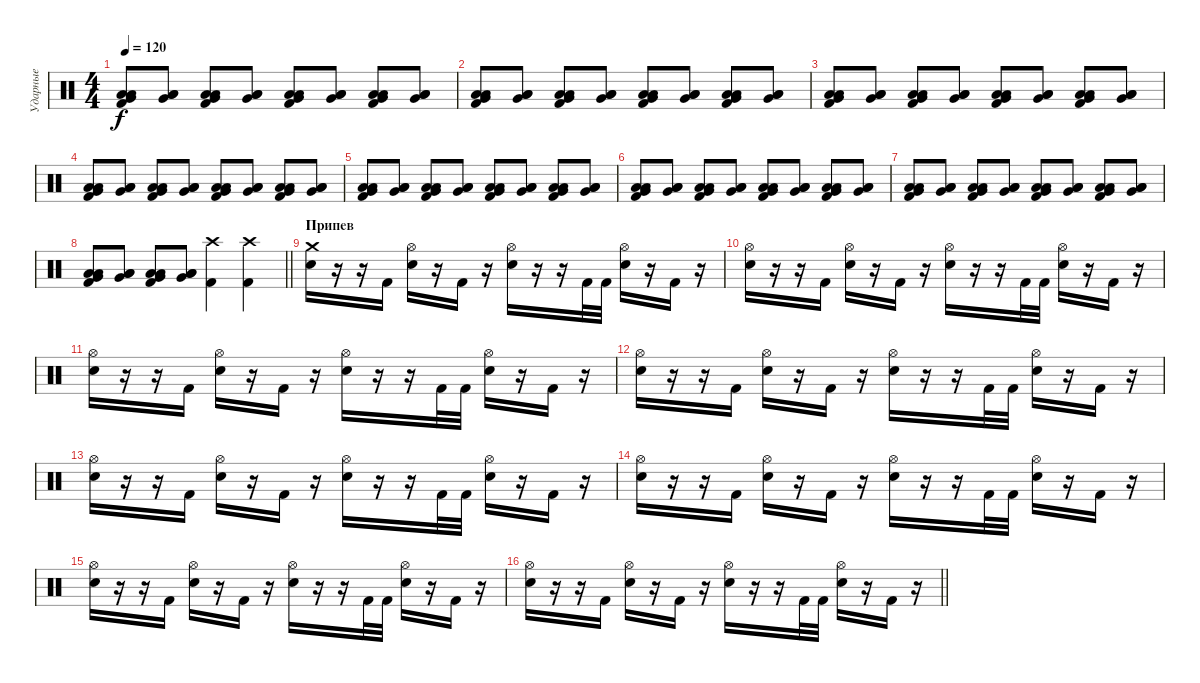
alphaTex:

\track ("Ударные" "Ударные") {instrument percussion}
\staff {score}
\articulation defaults
\ts (4 4)
\section ("" "")
\tempo 120
\clef neutral
\ks c
("Low Tom (hit)" "Low Floor Tom (hit)" "Very Low Tom (hit)" "Kick (hit) 2").8{dy f volume 9} ("Low Tom (hit)" "Low Floor Tom (hit)" "Very Low Tom (hit)").8 ("Low Tom (hit)" "Low Floor Tom (hit)" "Very Low Tom (hit)" "Kick (hit) 2").8 ("Low Tom (hit)" "Low Floor Tom (hit)" "Very Low Tom (hit)").8 ("Low Tom (hit)" "Low Floor Tom (hit)" "Very Low Tom (hit)" "Kick (hit) 2").8 ("Low Tom (hit)" "Low Floor Tom (hit)" "Very Low Tom (hit)").8 ("Low Tom (hit)" "Low Floor Tom (hit)" "Very Low Tom (hit)" "Kick (hit) 2").8 ("Low Tom (hit)" "Low Floor Tom (hit)" "Very Low Tom (hit)").8 |
("Low Tom (hit)" "Low Floor Tom (hit)" "Very Low Tom (hit)" "Kick (hit) 2").8 ("Low Tom (hit)" "Low Floor Tom (hit)" "Very Low Tom (hit)").8 ("Low Tom (hit)" "Low Floor Tom (hit)" "Very Low Tom (hit)" "Kick (hit) 2").8 ("Low Tom (hit)" "Low Floor Tom (hit)" "Very Low Tom (hit)").8 ("Low Tom (hit)" "Low Floor Tom (hit)" "Very Low Tom (hit)" "Kick (hit) 2").8 ("Low Tom (hit)" "Low Floor Tom (hit)" "Very Low Tom (hit)").8 ("Low Tom (hit)" "Low Floor Tom (hit)" "Very Low Tom (hit)" "Kick (hit) 2").8 ("Low Tom (hit)" "Low Floor Tom (hit)" "Very Low Tom (hit)").8 |
("Low Tom (hit)" "Low Floor Tom (hit)" "Very Low Tom (hit)" "Kick (hit) 2").8 ("Low Tom (hit)" "Low Floor Tom (hit)" "Very Low Tom (hit)").8 ("Low Tom (hit)" "Low Floor Tom (hit)" "Very Low Tom (hit)" "Kick (hit) 2").8 ("Low Tom (hit)" "Low Floor Tom (hit)" "Very Low Tom (hit)").8 ("Low Tom (hit)" "Low Floor Tom (hit)" "Very Low Tom (hit)" "Kick (hit) 2").8 ("Low Tom (hit)" "Low Floor Tom (hit)" "Very Low Tom (hit)").8 ("Low Tom (hit)" "Low Floor Tom (hit)" "Very Low Tom (hit)" "Kick (hit) 2").8 ("Low Tom (hit)" "Low Floor Tom (hit)" "Very Low Tom (hit)").8 |
("Low Tom (hit)" "Low Floor Tom (hit)" "Very Low Tom (hit)" "Kick (hit) 2").8 ("Low Tom (hit)" "Low Floor Tom (hit)" "Very Low Tom (hit)").8 ("Low Tom (hit)" "Low Floor Tom (hit)" "Very Low Tom (hit)" "Kick (hit) 2").8 ("Low Tom (hit)" "Low Floor Tom (hit)" "Very Low Tom (hit)").8 ("Low Tom (hit)" "Low Floor Tom (hit)" "Very Low Tom (hit)" "Kick (hit) 2").8 ("Low Tom (hit)" "Low Floor Tom (hit)" "Very Low Tom (hit)").8 ("Low Tom (hit)" "Low Floor Tom (hit)" "Very Low Tom (hit)" "Kick (hit) 2").8 ("Low Tom (hit)" "Low Floor Tom (hit)" "Very Low Tom (hit)").8 |
("Low Tom (hit)" "Low Floor Tom (hit)" "Very Low Tom (hit)" "Kick (hit) 2").8 ("Low Tom (hit)" "Low Floor Tom (hit)" "Very Low Tom (hit)").8 ("Low Tom (hit)" "Low Floor Tom (hit)" "Very Low Tom (hit)" "Kick (hit) 2").8 ("Low Tom (hit)" "Low Floor Tom (hit)" "Very Low Tom (hit)").8 ("Low Tom (hit)" "Low Floor Tom (hit)" "Very Low Tom (hit)" "Kick (hit) 2").8 ("Low Tom (hit)" "Low Floor Tom (hit)" "Very Low Tom (hit)").8 ("Low Tom (hit)" "Low Floor Tom (hit)" "Very Low Tom (hit)" "Kick (hit) 2").8 ("Low Tom (hit)" "Low Floor Tom (hit)" "Very Low Tom (hit)").8 |
("Low Tom (hit)" "Low Floor Tom (hit)" "Very Low Tom (hit)" "Kick (hit) 2").8 ("Low Tom (hit)" "Low Floor Tom (hit)" "Very Low Tom (hit)").8 ("Low Tom (hit)" "Low Floor Tom (hit)" "Very Low Tom (hit)" "Kick (hit) 2").8 ("Low Tom (hit)" "Low Floor Tom (hit)" "Very Low Tom (hit)").8 ("Low Tom (hit)" "Low Floor Tom (hit)" "Very Low Tom (hit)" "Kick (hit) 2").8 ("Low Tom (hit)" "Low Floor Tom (hit)" "Very Low Tom (hit)").8 ("Low Tom (hit)" "Low Floor Tom (hit)" "Very Low Tom (hit)" "Kick (hit) 2").8 ("Low Tom (hit)" "Low Floor Tom (hit)" "Very Low Tom (hit)").8 |
("Low Tom (hit)" "Low Floor Tom (hit)" "Very Low Tom (hit)" "Kick (hit) 2").8 ("Low Tom (hit)" "Low Floor Tom (hit)" "Very Low Tom (hit)").8 ("Low Tom (hit)" "Low Floor Tom (hit)" "Very Low Tom (hit)" "Kick (hit) 2").8 ("Low Tom (hit)" "Low Floor Tom (hit)" "Very Low Tom (hit)").8 ("Low Tom (hit)" "Low Floor Tom (hit)" "Very Low Tom (hit)" "Kick (hit) 2").8 ("Low Tom (hit)" "Low Floor Tom (hit)" "Very Low Tom (hit)").8 ("Low Tom (hit)" "Low Floor Tom (hit)" "Very Low Tom (hit)" "Kick (hit) 2").8 ("Low Tom (hit)" "Low Floor Tom (hit)" "Very Low Tom (hit)").8 |
\barLineRight lightlight
("Low Tom (hit)" "Low Floor Tom (hit)" "Very Low Tom (hit)" "Kick (hit) 2").8 ("Low Tom (hit)" "Low Floor Tom (hit)" "Very Low Tom (hit)").8 ("Low Tom (hit)" "Low Floor Tom (hit)" "Very Low Tom (hit)" "Kick (hit) 2").8 ("Low Tom (hit)" "Low Floor Tom (hit)" "Very Low Tom (hit)").8 ("Crash high (hit)" "Kick (hit) 2").4{volume 13} ("Crash high (hit)" "Kick (hit) 2").4 |
\section ("" "Припев")
("Crash medium (hit)" "Electric Snare (hit)").16 r.16 r.16 "Kick (hit) 2".16 ("Hi-Hat (open)" "Electric Snare (hit)").16 r.16 "Kick (hit) 2".16 r.16 ("Hi-Hat (open)" "Electric Snare (hit)").16 r.16 r.16 "Kick (hit) 2".32 "Kick (hit) 2".32 ("Hi-Hat (open)" "Electric Snare (hit)").16 r.16 "Kick (hit) 2".16 r.16 |
("Hi-Hat (open)" "Electric Snare (hit)").16 r.16 r.16 "Kick (hit) 2".16 ("Hi-Hat (open)" "Electric Snare (hit)").16 r.16 "Kick (hit) 2".16 r.16 ("Hi-Hat (open)" "Electric Snare (hit)").16 r.16 r.16 "Kick (hit) 2".32 "Kick (hit) 2".32 ("Hi-Hat (open)" "Electric Snare (hit)").16 r.16 "Kick (hit) 2".16 r.16 |
("Hi-Hat (open)" "Electric Snare (hit)").16 r.16 r.16 "Kick (hit) 2".16 ("Hi-Hat (open)" "Electric Snare (hit)").16 r.16 "Kick (hit) 2".16 r.16 ("Hi-Hat (open)" "Electric Snare (hit)").16 r.16 r.16 "Kick (hit) 2".32 "Kick (hit) 2".32 ("Hi-Hat (open)" "Electric Snare (hit)").16 r.16 "Kick (hit) 2".16 r.16 |
("Hi-Hat (open)" "Electric Snare (hit)").16 r.16 r.16 "Kick (hit) 2".16 ("Hi-Hat (open)" "Electric Snare (hit)").16 r.16 "Kick (hit) 2".16 r.16 ("Hi-Hat (open)" "Electric Snare (hit)").16 r.16 r.16 "Kick (hit) 2".32 "Kick (hit) 2".32 ("Hi-Hat (open)" "Electric Snare (hit)").16 r.16 "Kick (hit) 2".16 r.16 |
("Hi-Hat (open)" "Electric Snare (hit)").16 r.16 r.16 "Kick (hit) 2".16 ("Hi-Hat (open)" "Electric Snare (hit)").16 r.16 "Kick (hit) 2".16 r.16 ("Hi-Hat (open)" "Electric Snare (hit)").16 r.16 r.16 "Kick (hit) 2".32 "Kick (hit) 2".32 ("Hi-Hat (open)" "Electric Snare (hit)").16 r.16 "Kick (hit) 2".16 r.16 |
("Hi-Hat (open)" "Electric Snare (hit)").16 r.16 r.16 "Kick (hit) 2".16 ("Hi-Hat (open)" "Electric Snare (hit)").16 r.16 "Kick (hit) 2".16 r.16 ("Hi-Hat (open)" "Electric Snare (hit)").16 r.16 r.16 "Kick (hit) 2".32 "Kick (hit) 2".32 ("Hi-Hat (open)" "Electric Snare (hit)").16 r.16 "Kick (hit) 2".16 r.16 |
("Hi-Hat (open)" "Electric Snare (hit)").16 r.16 r.16 "Kick (hit) 2".16 ("Hi-Hat (open)" "Electric Snare (hit)").16 r.16 "Kick (hit) 2".16 r.16 ("Hi-Hat (open)" "Electric Snare (hit)").16 r.16 r.16 "Kick (hit) 2".32 "Kick (hit) 2".32 ("Hi-Hat (open)" "Electric Snare (hit)").16 r.16 "Kick (hit) 2".16 r.16 |
\barLineRight lightlight
("Hi-Hat (open)" "Electric Snare (hit)").16 r.16 r.16 "Kick (hit) 2".16 ("Hi-Hat (open)" "Electric Snare (hit)").16 r.16 "Kick (hit) 2".16 r.16 ("Hi-Hat (open)" "Electric Snare (hit)").16 r.16 r.16 "Kick (hit) 2".32 "Kick (hit) 2".32 ("Hi-Hat (open)" "Electric Snare (hit)").16 r.16 "Kick (hit) 2".16 r.16
